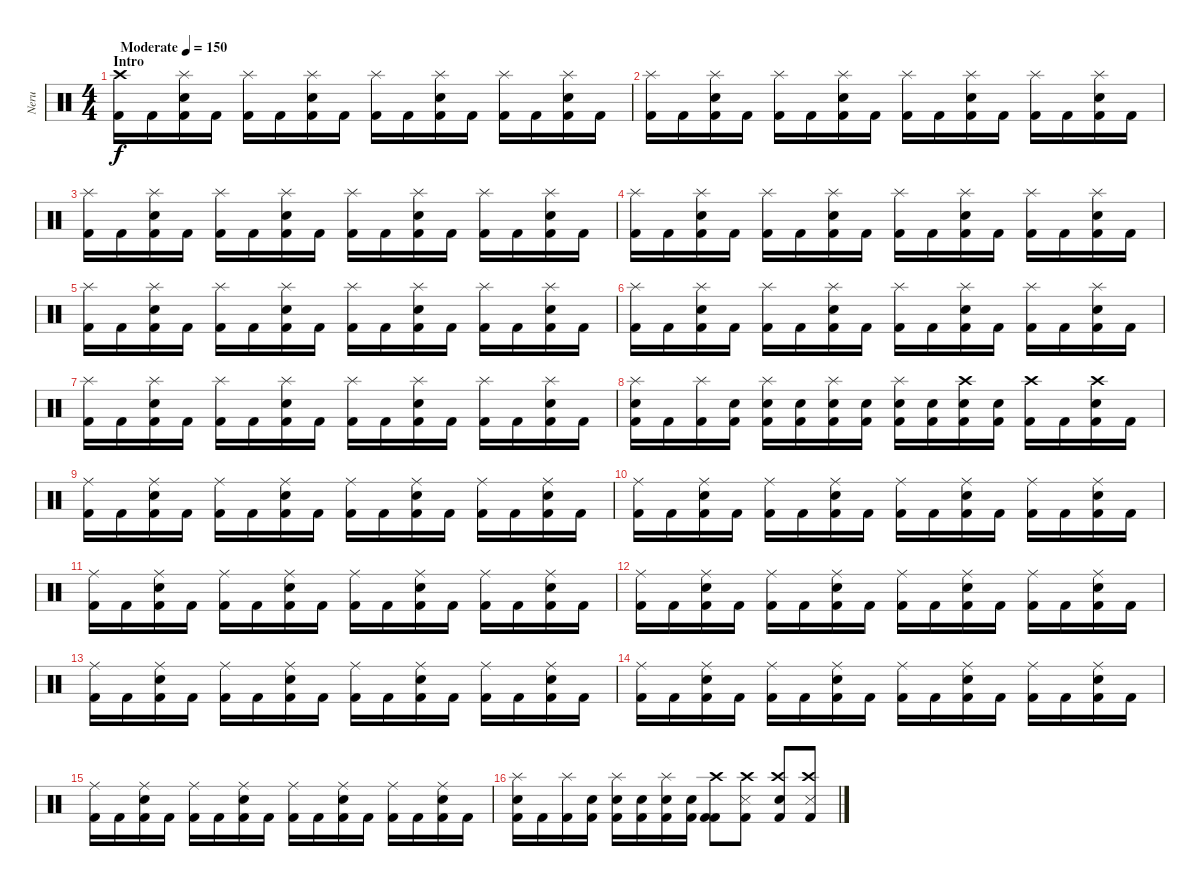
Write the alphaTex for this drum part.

\track ("Neru" "Neru") {instrument percussion}
\staff {score}
\articulation defaults
\ts (4 4)
\section ("" "Intro")
\tempo (150 "Moderate")
\clef neutral
\ks c
("Kick (hit) 2" "Crash high (hit)").16{dy f} "Kick (hit) 2".16 ("Kick (hit) 2" "Electric Snare (hit)" "Splash (hit)").16 "Kick (hit) 2".16 ("Kick (hit) 2" "Splash (hit)").16 "Kick (hit) 2".16 ("Kick (hit) 2" "Electric Snare (hit)" "Splash (hit)").16 "Kick (hit) 2".16 ("Kick (hit) 2" "Splash (hit)").16 "Kick (hit) 2".16 ("Kick (hit) 2" "Electric Snare (hit)" "Splash (hit)").16 "Kick (hit) 2".16 ("Kick (hit) 2" "Splash (hit)").16 "Kick (hit) 2".16 ("Kick (hit) 2" "Electric Snare (hit)" "Splash (hit)").16 "Kick (hit) 2".16 |
("Kick (hit) 2" "Splash (hit)").16 "Kick (hit) 2".16 ("Kick (hit) 2" "Electric Snare (hit)" "Splash (hit)").16 "Kick (hit) 2".16 ("Kick (hit) 2" "Splash (hit)").16 "Kick (hit) 2".16 ("Kick (hit) 2" "Electric Snare (hit)" "Splash (hit)").16 "Kick (hit) 2".16 ("Kick (hit) 2" "Splash (hit)").16 "Kick (hit) 2".16 ("Kick (hit) 2" "Electric Snare (hit)" "Splash (hit)").16 "Kick (hit) 2".16 ("Kick (hit) 2" "Splash (hit)").16 "Kick (hit) 2".16 ("Kick (hit) 2" "Electric Snare (hit)" "Splash (hit)").16 "Kick (hit) 2".16 |
("Kick (hit) 2" "Splash (hit)").16 "Kick (hit) 2".16 ("Kick (hit) 2" "Electric Snare (hit)" "Splash (hit)").16 "Kick (hit) 2".16 ("Kick (hit) 2" "Splash (hit)").16 "Kick (hit) 2".16 ("Kick (hit) 2" "Electric Snare (hit)" "Splash (hit)").16 "Kick (hit) 2".16 ("Kick (hit) 2" "Splash (hit)").16 "Kick (hit) 2".16 ("Kick (hit) 2" "Electric Snare (hit)" "Splash (hit)").16 "Kick (hit) 2".16 ("Kick (hit) 2" "Splash (hit)").16 "Kick (hit) 2".16 ("Kick (hit) 2" "Electric Snare (hit)" "Splash (hit)").16 "Kick (hit) 2".16 |
("Kick (hit) 2" "Splash (hit)").16 "Kick (hit) 2".16 ("Kick (hit) 2" "Electric Snare (hit)" "Splash (hit)").16 "Kick (hit) 2".16 ("Kick (hit) 2" "Splash (hit)").16 "Kick (hit) 2".16 ("Kick (hit) 2" "Electric Snare (hit)" "Splash (hit)").16 "Kick (hit) 2".16 ("Kick (hit) 2" "Splash (hit)").16 "Kick (hit) 2".16 ("Kick (hit) 2" "Electric Snare (hit)" "Splash (hit)").16 "Kick (hit) 2".16 ("Kick (hit) 2" "Splash (hit)").16 "Kick (hit) 2".16 ("Kick (hit) 2" "Electric Snare (hit)" "Splash (hit)").16 "Kick (hit) 2".16 |
("Kick (hit) 2" "Splash (hit)").16 "Kick (hit) 2".16 ("Kick (hit) 2" "Electric Snare (hit)" "Splash (hit)").16 "Kick (hit) 2".16 ("Kick (hit) 2" "Splash (hit)").16 "Kick (hit) 2".16 ("Kick (hit) 2" "Electric Snare (hit)" "Splash (hit)").16 "Kick (hit) 2".16 ("Kick (hit) 2" "Splash (hit)").16 "Kick (hit) 2".16 ("Kick (hit) 2" "Electric Snare (hit)" "Splash (hit)").16 "Kick (hit) 2".16 ("Kick (hit) 2" "Splash (hit)").16 "Kick (hit) 2".16 ("Kick (hit) 2" "Electric Snare (hit)" "Splash (hit)").16 "Kick (hit) 2".16 |
("Kick (hit) 2" "Splash (hit)").16 "Kick (hit) 2".16 ("Kick (hit) 2" "Electric Snare (hit)" "Splash (hit)").16 "Kick (hit) 2".16 ("Kick (hit) 2" "Splash (hit)").16 "Kick (hit) 2".16 ("Kick (hit) 2" "Electric Snare (hit)" "Splash (hit)").16 "Kick (hit) 2".16 ("Kick (hit) 2" "Splash (hit)").16 "Kick (hit) 2".16 ("Kick (hit) 2" "Electric Snare (hit)" "Splash (hit)").16 "Kick (hit) 2".16 ("Kick (hit) 2" "Splash (hit)").16 "Kick (hit) 2".16 ("Kick (hit) 2" "Electric Snare (hit)" "Splash (hit)").16 "Kick (hit) 2".16 |
("Kick (hit) 2" "Splash (hit)").16 "Kick (hit) 2".16 ("Kick (hit) 2" "Electric Snare (hit)" "Splash (hit)").16 "Kick (hit) 2".16 ("Kick (hit) 2" "Splash (hit)").16 "Kick (hit) 2".16 ("Kick (hit) 2" "Electric Snare (hit)" "Splash (hit)").16 "Kick (hit) 2".16 ("Kick (hit) 2" "Splash (hit)").16 "Kick (hit) 2".16 ("Kick (hit) 2" "Electric Snare (hit)" "Splash (hit)").16 "Kick (hit) 2".16 ("Kick (hit) 2" "Splash (hit)").16 "Kick (hit) 2".16 ("Kick (hit) 2" "Electric Snare (hit)" "Splash (hit)").16 "Kick (hit) 2".16 |
("Kick (hit) 2" "Electric Snare (hit)" "Splash (hit)").16 "Kick (hit) 2".16 ("Kick (hit) 2" "Splash (hit)").16 ("Kick (hit) 2" "Electric Snare (hit)").16 ("Kick (hit) 2" "Electric Snare (hit)" "Splash (hit)").16 ("Kick (hit) 2" "Electric Snare (hit)").16 ("Kick (hit) 2" "Electric Snare (hit)" "Splash (hit)").16 ("Kick (hit) 2" "Electric Snare (hit)").16 ("Kick (hit) 2" "Electric Snare (hit)" "Splash (hit)").16 ("Kick (hit) 2" "Electric Snare (hit)").16 ("Kick (hit) 2" "Electric Snare (hit)" "Crash high (hit)").16 ("Kick (hit) 2" "Electric Snare (hit)").16 ("Kick (hit) 2" "Crash high (hit)").16 "Kick (hit) 2".16 ("Kick (hit) 2" "Electric Snare (hit)" "Crash high (hit)").16 "Kick (hit) 2".16 |
("Kick (hit) 2" "Ride (middle)").16 "Kick (hit) 2".16 ("Kick (hit) 2" "Electric Snare (hit)" "Ride (middle)").16 "Kick (hit) 2".16 ("Kick (hit) 2" "Ride (middle)").16 "Kick (hit) 2".16 ("Kick (hit) 2" "Electric Snare (hit)" "Ride (middle)").16 "Kick (hit) 2".16 ("Kick (hit) 2" "Ride (middle)").16 "Kick (hit) 2".16 ("Kick (hit) 2" "Electric Snare (hit)" "Ride (middle)").16 "Kick (hit) 2".16 ("Kick (hit) 2" "Ride (middle)").16 "Kick (hit) 2".16 ("Kick (hit) 2" "Electric Snare (hit)" "Ride (middle)").16 "Kick (hit) 2".16 |
("Kick (hit) 2" "Ride (middle)").16 "Kick (hit) 2".16 ("Kick (hit) 2" "Electric Snare (hit)" "Ride (middle)").16 "Kick (hit) 2".16 ("Kick (hit) 2" "Ride (middle)").16 "Kick (hit) 2".16 ("Kick (hit) 2" "Electric Snare (hit)" "Ride (middle)").16 "Kick (hit) 2".16 ("Kick (hit) 2" "Ride (middle)").16 "Kick (hit) 2".16 ("Kick (hit) 2" "Electric Snare (hit)" "Ride (middle)").16 "Kick (hit) 2".16 ("Kick (hit) 2" "Ride (middle)").16 "Kick (hit) 2".16 ("Kick (hit) 2" "Electric Snare (hit)" "Ride (middle)").16 "Kick (hit) 2".16 |
("Kick (hit) 2" "Ride (middle)").16 "Kick (hit) 2".16 ("Kick (hit) 2" "Electric Snare (hit)" "Ride (middle)").16 "Kick (hit) 2".16 ("Kick (hit) 2" "Ride (middle)").16 "Kick (hit) 2".16 ("Kick (hit) 2" "Electric Snare (hit)" "Ride (middle)").16 "Kick (hit) 2".16 ("Kick (hit) 2" "Ride (middle)").16 "Kick (hit) 2".16 ("Kick (hit) 2" "Electric Snare (hit)" "Ride (middle)").16 "Kick (hit) 2".16 ("Kick (hit) 2" "Ride (middle)").16 "Kick (hit) 2".16 ("Kick (hit) 2" "Electric Snare (hit)" "Ride (middle)").16 "Kick (hit) 2".16 |
("Kick (hit) 2" "Ride (middle)").16 "Kick (hit) 2".16 ("Kick (hit) 2" "Electric Snare (hit)" "Ride (middle)").16 "Kick (hit) 2".16 ("Kick (hit) 2" "Ride (middle)").16 "Kick (hit) 2".16 ("Kick (hit) 2" "Electric Snare (hit)" "Ride (middle)").16 "Kick (hit) 2".16 ("Kick (hit) 2" "Ride (middle)").16 "Kick (hit) 2".16 ("Kick (hit) 2" "Electric Snare (hit)" "Ride (middle)").16 "Kick (hit) 2".16 ("Kick (hit) 2" "Ride (middle)").16 "Kick (hit) 2".16 ("Kick (hit) 2" "Electric Snare (hit)" "Ride (middle)").16 "Kick (hit) 2".16 |
("Kick (hit) 2" "Ride (middle)").16 "Kick (hit) 2".16 ("Kick (hit) 2" "Electric Snare (hit)" "Ride (middle)").16 "Kick (hit) 2".16 ("Kick (hit) 2" "Ride (middle)").16 "Kick (hit) 2".16 ("Kick (hit) 2" "Electric Snare (hit)" "Ride (middle)").16 "Kick (hit) 2".16 ("Kick (hit) 2" "Ride (middle)").16 "Kick (hit) 2".16 ("Kick (hit) 2" "Electric Snare (hit)" "Ride (middle)").16 "Kick (hit) 2".16 ("Kick (hit) 2" "Ride (middle)").16 "Kick (hit) 2".16 ("Kick (hit) 2" "Electric Snare (hit)" "Ride (middle)").16 "Kick (hit) 2".16 |
("Kick (hit) 2" "Ride (middle)").16 "Kick (hit) 2".16 ("Kick (hit) 2" "Electric Snare (hit)" "Ride (middle)").16 "Kick (hit) 2".16 ("Kick (hit) 2" "Ride (middle)").16 "Kick (hit) 2".16 ("Kick (hit) 2" "Electric Snare (hit)" "Ride (middle)").16 "Kick (hit) 2".16 ("Kick (hit) 2" "Ride (middle)").16 "Kick (hit) 2".16 ("Kick (hit) 2" "Electric Snare (hit)" "Ride (middle)").16 "Kick (hit) 2".16 ("Kick (hit) 2" "Ride (middle)").16 "Kick (hit) 2".16 ("Kick (hit) 2" "Electric Snare (hit)" "Ride (middle)").16 "Kick (hit) 2".16 |
("Kick (hit) 2" "Ride (middle)").16 "Kick (hit) 2".16 ("Kick (hit) 2" "Electric Snare (hit)" "Ride (middle)").16 "Kick (hit) 2".16 ("Kick (hit) 2" "Ride (middle)").16 "Kick (hit) 2".16 ("Kick (hit) 2" "Electric Snare (hit)" "Ride (middle)").16 "Kick (hit) 2".16 ("Kick (hit) 2" "Ride (middle)").16 "Kick (hit) 2".16 ("Kick (hit) 2" "Electric Snare (hit)" "Ride (middle)").16 "Kick (hit) 2".16 ("Kick (hit) 2" "Ride (middle)").16 "Kick (hit) 2".16 ("Kick (hit) 2" "Electric Snare (hit)" "Ride (middle)").16 "Kick (hit) 2".16 |
("Kick (hit) 2" "Electric Snare (hit)" "Splash (hit)").16 "Kick (hit) 2".16 ("Kick (hit) 2" "Splash (hit)").16 ("Kick (hit) 2" "Electric Snare (hit)").16 ("Kick (hit) 2" "Electric Snare (hit)" "Splash (hit)").16 ("Kick (hit) 2" "Electric Snare (hit)").16 ("Kick (hit) 2" "Electric Snare (hit)" "Splash (hit)").16 ("Kick (hit) 2" "Electric Snare (hit)").16 ("Kick (hit) 2" "Kick (hit) 2" "Crash high (hit)").8 ("Kick (hit) 2" "Snare (side stick) 3" "Crash high (hit)").8 ("Kick (hit) 2" "Snare (hit) 2" "Crash high (hit)").8 ("Kick (hit) 2" "Snare (side stick) 3" "Crash high (hit)").8
